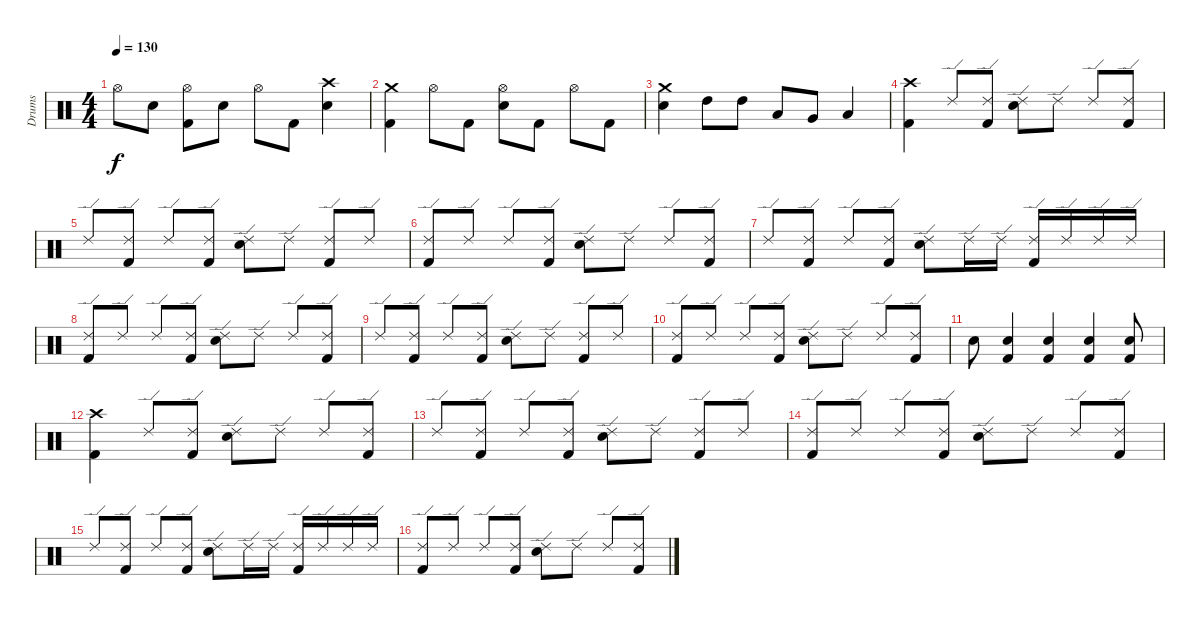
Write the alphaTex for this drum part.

\track ("Drums" "Drums") {instrument percussion}
\staff {score}
\articulation defaults
\ts (4 4)
\tempo 130
\clef neutral
\ks c "Hi-Hat (open)".8{dy f} "Snare (hit) 2".8
("Hi-Hat (open)" "Kick (hit) 2").8 "Snare (hit) 2".8 "Hi-Hat (open)".8 "Kick (hit) 2".8 ("Crash high (hit)" "Snare (hit) 2").4 |
("Crash medium (hit)" "Kick (hit) 2").4 "Hi-Hat (open)".8 "Kick (hit) 2".8 ("Hi-Hat (open)" "Snare (hit) 2").8 "Kick (hit) 2".8 "Hi-Hat (open)".8 "Kick (hit) 2".8 |
("Crash medium (hit)" "Snare (hit) 2").4 "High Tom (hit)".8 "High Tom (hit)".8 "Low Tom (hit)".8 "Very Low Tom (hit)".8 "Low Floor Tom (hit)".4 |
("Crash high (hit)" "Kick (hit) 2").4 "Ride (edge) 2".8 ("Ride (edge) 2" "Kick (hit) 2").8 ("Ride (edge) 2" "Snare (hit) 2").8 "Ride (edge) 2".8 "Ride (edge) 2".8 ("Ride (edge) 2" "Kick (hit) 2").8 |
"Ride (edge) 2".8 ("Ride (edge) 2" "Kick (hit) 2").8 "Ride (edge) 2".8 ("Ride (edge) 2" "Kick (hit) 2").8 ("Ride (edge) 2" "Snare (hit) 2").8 "Ride (edge) 2".8 ("Ride (edge) 2" "Kick (hit) 2").8 "Ride (edge) 2".8 |
("Ride (edge) 2" "Kick (hit) 2").8 "Ride (edge) 2".8 "Ride (edge) 2".8 ("Ride (edge) 2" "Kick (hit) 2").8 ("Ride (edge) 2" "Snare (hit) 2").8 "Ride (edge) 2".8 "Ride (edge) 2".8 ("Ride (edge) 2" "Kick (hit) 2").8 |
"Ride (edge) 2".8 ("Ride (edge) 2" "Kick (hit) 2").8 "Ride (edge) 2".8 ("Ride (edge) 2" "Kick (hit) 2").8 ("Ride (edge) 2" "Snare (hit) 2").8 "Ride (edge) 2".16 "Ride (edge) 2".16 ("Ride (edge) 2" "Kick (hit) 2").16 "Ride (edge) 2".16 "Ride (edge) 2".16 "Ride (edge) 2".16 |
("Ride (edge) 2" "Kick (hit) 2").8 "Ride (edge) 2".8 "Ride (edge) 2".8 ("Ride (edge) 2" "Kick (hit) 2").8 ("Ride (edge) 2" "Snare (hit) 2").8 "Ride (edge) 2".8 "Ride (edge) 2".8 ("Ride (edge) 2" "Kick (hit) 2").8 |
"Ride (edge) 2".8 ("Ride (edge) 2" "Kick (hit) 2").8 "Ride (edge) 2".8 ("Ride (edge) 2" "Kick (hit) 2").8 ("Ride (edge) 2" "Snare (hit) 2").8 "Ride (edge) 2".8 ("Ride (edge) 2" "Kick (hit) 2").8 "Ride (edge) 2".8 |
("Ride (edge) 2" "Kick (hit) 2").8 "Ride (edge) 2".8 "Ride (edge) 2".8 ("Ride (edge) 2" "Kick (hit) 2").8 ("Ride (edge) 2" "Snare (hit) 2").8 "Ride (edge) 2".8 "Ride (edge) 2".8 ("Ride (edge) 2" "Kick (hit) 2").8 |
"Snare (hit) 2".8 ("Snare (hit) 2" "Kick (hit) 2").4 ("Snare (hit) 2" "Kick (hit) 2").4 ("Snare (hit) 2" "Kick (hit) 2").4 ("Snare (hit) 2" "Kick (hit) 2").8 |
("Crash high (hit)" "Kick (hit) 2").4 "Ride (edge) 2".8 ("Ride (edge) 2" "Kick (hit) 2").8 ("Ride (edge) 2" "Snare (hit) 2").8 "Ride (edge) 2".8 "Ride (edge) 2".8 ("Ride (edge) 2" "Kick (hit) 2").8 |
"Ride (edge) 2".8 ("Ride (edge) 2" "Kick (hit) 2").8 "Ride (edge) 2".8 ("Ride (edge) 2" "Kick (hit) 2").8 ("Ride (edge) 2" "Snare (hit) 2").8 "Ride (edge) 2".8 ("Ride (edge) 2" "Kick (hit) 2").8 "Ride (edge) 2".8 |
("Ride (edge) 2" "Kick (hit) 2").8 "Ride (edge) 2".8 "Ride (edge) 2".8 ("Ride (edge) 2" "Kick (hit) 2").8 ("Ride (edge) 2" "Snare (hit) 2").8 "Ride (edge) 2".8 "Ride (edge) 2".8 ("Ride (edge) 2" "Kick (hit) 2").8 |
"Ride (edge) 2".8 ("Ride (edge) 2" "Kick (hit) 2").8 "Ride (edge) 2".8 ("Ride (edge) 2" "Kick (hit) 2").8 ("Ride (edge) 2" "Snare (hit) 2").8 "Ride (edge) 2".16 "Ride (edge) 2".16 ("Ride (edge) 2" "Kick (hit) 2").16 "Ride (edge) 2".16 "Ride (edge) 2".16 "Ride (edge) 2".16 |
("Ride (edge) 2" "Kick (hit) 2").8 "Ride (edge) 2".8 "Ride (edge) 2".8 ("Ride (edge) 2" "Kick (hit) 2").8 ("Ride (edge) 2" "Snare (hit) 2").8 "Ride (edge) 2".8 "Ride (edge) 2".8 ("Ride (edge) 2" "Kick (hit) 2").8
